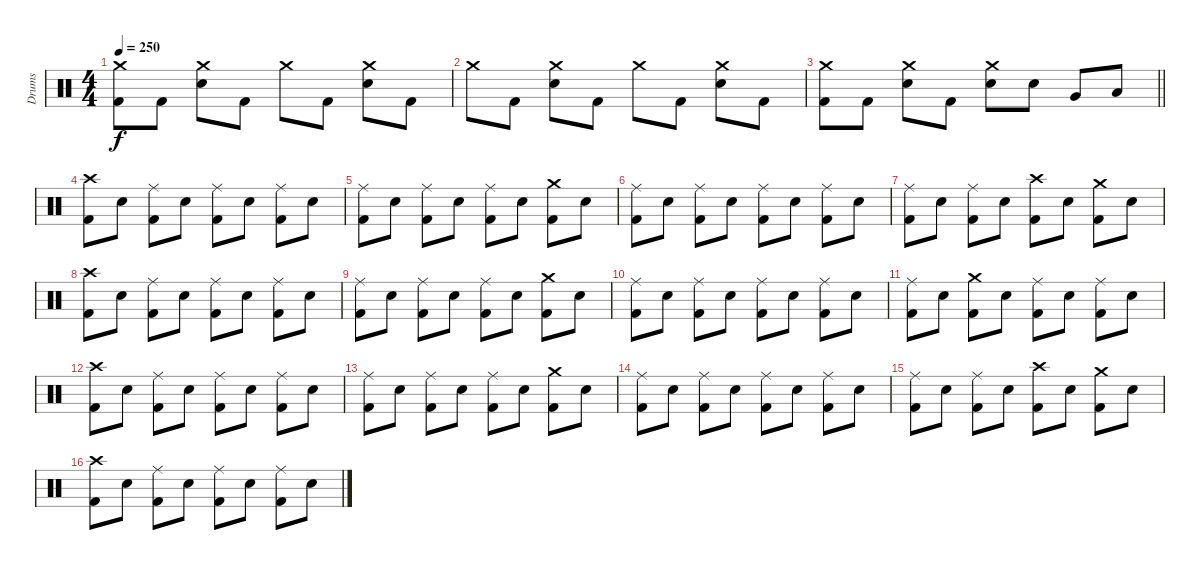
\track ("Drums" "Drums") {instrument percussion}
\staff {score}
\articulation defaults
\ts (4 4)
\tempo 250
\clef neutral
\ks c
("Crash medium (hit)" "Kick (hit) 2").8{dy f} "Kick (hit) 2".8 ("Crash medium (hit)" "Electric Snare (hit)").8 "Kick (hit) 2".8 "Crash medium (hit)".8 "Kick (hit) 2".8 ("Crash medium (hit)" "Electric Snare (hit)").8 "Kick (hit) 2".8 |
"Crash medium (hit)".8 "Kick (hit) 2".8 ("Crash medium (hit)" "Electric Snare (hit)").8 "Kick (hit) 2".8 "Crash medium (hit)".8 "Kick (hit) 2".8 ("Crash medium (hit)" "Electric Snare (hit)").8 "Kick (hit) 2".8 |
\barLineRight lightlight
("Crash medium (hit)" "Kick (hit) 2").8 "Kick (hit) 2".8 ("Crash medium (hit)" "Electric Snare (hit)").8 "Kick (hit) 2".8 ("Crash medium (hit)" "Electric Snare (hit)").8 "Electric Snare (hit)".8 "Very Low Tom (hit)".8 "Low Floor Tom (hit)".8 |
("Crash high (hit)" "Kick (hit) 2").8 "Electric Snare (hit)".8 ("Ride (middle)" "Kick (hit) 2").8 "Electric Snare (hit)".8 ("Ride (middle)" "Kick (hit) 2").8 "Electric Snare (hit)".8 ("Ride (middle)" "Kick (hit) 2").8 "Electric Snare (hit)".8 |
("Ride (middle)" "Kick (hit) 2").8 "Electric Snare (hit)".8 ("Ride (middle)" "Kick (hit) 2").8 "Electric Snare (hit)".8 ("Ride (middle)" "Kick (hit) 2").8 "Electric Snare (hit)".8 ("Crash medium (hit)" "Kick (hit) 2").8 "Electric Snare (hit)".8 |
("Ride (middle)" "Kick (hit) 2").8 "Electric Snare (hit)".8 ("Ride (middle)" "Kick (hit) 2").8 "Electric Snare (hit)".8 ("Ride (middle)" "Kick (hit) 2").8 "Electric Snare (hit)".8 ("Ride (middle)" "Kick (hit) 2").8 "Electric Snare (hit)".8 |
("Ride (middle)" "Kick (hit) 2").8 "Electric Snare (hit)".8 ("Ride (middle)" "Kick (hit) 2").8 "Electric Snare (hit)".8 ("Crash high (hit)" "Kick (hit) 2").8 "Electric Snare (hit)".8 ("Crash medium (hit)" "Kick (hit) 2").8 "Electric Snare (hit)".8 |
("Crash high (hit)" "Kick (hit) 2").8 "Electric Snare (hit)".8 ("Ride (middle)" "Kick (hit) 2").8 "Electric Snare (hit)".8 ("Ride (middle)" "Kick (hit) 2").8 "Electric Snare (hit)".8 ("Ride (middle)" "Kick (hit) 2").8 "Electric Snare (hit)".8 |
("Ride (middle)" "Kick (hit) 2").8 "Electric Snare (hit)".8 ("Ride (middle)" "Kick (hit) 2").8 "Electric Snare (hit)".8 ("Ride (middle)" "Kick (hit) 2").8 "Electric Snare (hit)".8 ("Crash medium (hit)" "Kick (hit) 2").8 "Electric Snare (hit)".8 |
("Ride (middle)" "Kick (hit) 2").8 "Electric Snare (hit)".8 ("Ride (middle)" "Kick (hit) 2").8 "Electric Snare (hit)".8 ("Ride (middle)" "Kick (hit) 2").8 "Electric Snare (hit)".8 ("Ride (middle)" "Kick (hit) 2").8 "Electric Snare (hit)".8 |
("Ride (middle)" "Kick (hit) 2").8 "Electric Snare (hit)".8 ("Crash medium (hit)" "Kick (hit) 2").8 "Electric Snare (hit)".8 ("Ride (middle)" "Kick (hit) 2").8 "Electric Snare (hit)".8 ("Ride (middle)" "Kick (hit) 2").8 "Electric Snare (hit)".8 |
("Crash high (hit)" "Kick (hit) 2").8 "Electric Snare (hit)".8 ("Ride (middle)" "Kick (hit) 2").8 "Electric Snare (hit)".8 ("Ride (middle)" "Kick (hit) 2").8 "Electric Snare (hit)".8 ("Ride (middle)" "Kick (hit) 2").8 "Electric Snare (hit)".8 |
("Ride (middle)" "Kick (hit) 2").8 "Electric Snare (hit)".8 ("Ride (middle)" "Kick (hit) 2").8 "Electric Snare (hit)".8 ("Ride (middle)" "Kick (hit) 2").8 "Electric Snare (hit)".8 ("Crash medium (hit)" "Kick (hit) 2").8 "Electric Snare (hit)".8 |
("Ride (middle)" "Kick (hit) 2").8 "Electric Snare (hit)".8 ("Ride (middle)" "Kick (hit) 2").8 "Electric Snare (hit)".8 ("Ride (middle)" "Kick (hit) 2").8 "Electric Snare (hit)".8 ("Ride (middle)" "Kick (hit) 2").8 "Electric Snare (hit)".8 |
("Ride (middle)" "Kick (hit) 2").8 "Electric Snare (hit)".8 ("Ride (middle)" "Kick (hit) 2").8 "Electric Snare (hit)".8 ("Crash high (hit)" "Kick (hit) 2").8 "Electric Snare (hit)".8 ("Crash medium (hit)" "Kick (hit) 2").8 "Electric Snare (hit)".8 |
("Crash high (hit)" "Kick (hit) 2").8 "Electric Snare (hit)".8 ("Ride (middle)" "Kick (hit) 2").8 "Electric Snare (hit)".8 ("Ride (middle)" "Kick (hit) 2").8 "Electric Snare (hit)".8 ("Ride (middle)" "Kick (hit) 2").8 "Electric Snare (hit)".8
